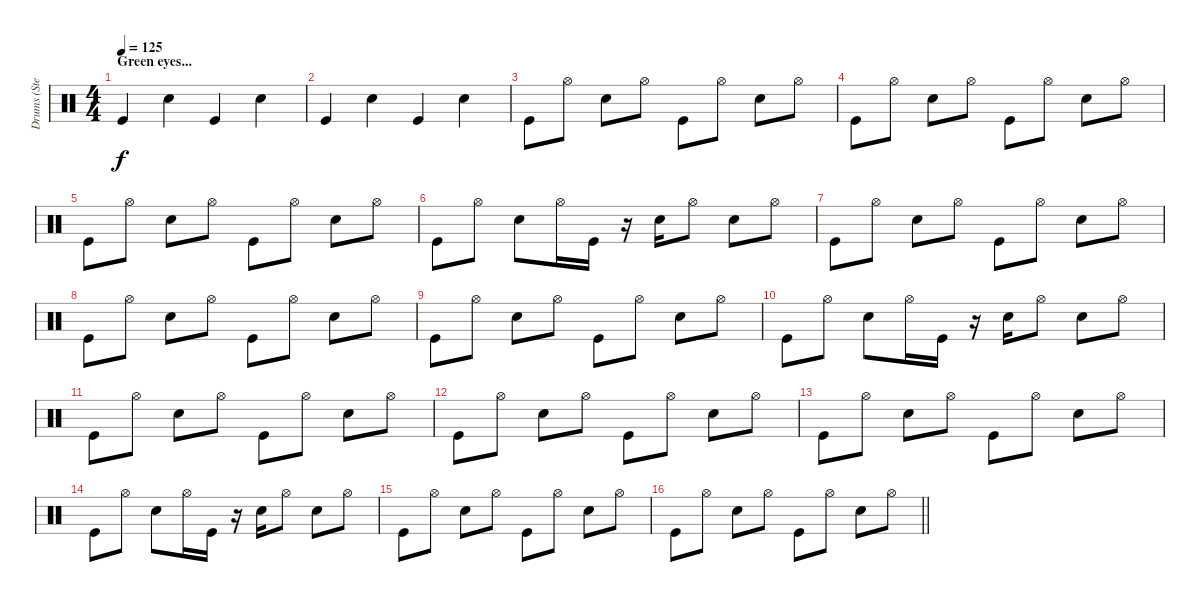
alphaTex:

\track ("Drums (Steve)" "Drums (Ste") {instrument percussion}
\staff {score}
\articulation defaults
\ts (4 4)
\section ("" "Green eyes...")
\tempo 125
\clef neutral
\ks c "Kick (hit)".4{dy f} "Electric Snare (hit)".4 "Kick (hit)".4 "Electric Snare (hit)".4
|
"Kick (hit)".4 "Electric Snare (hit)".4 "Kick (hit)".4 "Electric Snare (hit)".4 |
"Kick (hit)".8 "Hi-Hat (open)".8 "Electric Snare (hit)".8 "Hi-Hat (open)".8 "Kick (hit)".8 "Hi-Hat (open)".8 "Electric Snare (hit)".8 "Hi-Hat (open)".8 |
"Kick (hit)".8 "Hi-Hat (open)".8 "Electric Snare (hit)".8 "Hi-Hat (open)".8 "Kick (hit)".8 "Hi-Hat (open)".8 "Electric Snare (hit)".8 "Hi-Hat (open)".8 |
"Kick (hit)".8 "Hi-Hat (open)".8 "Electric Snare (hit)".8 "Hi-Hat (open)".8 "Kick (hit)".8 "Hi-Hat (open)".8 "Electric Snare (hit)".8 "Hi-Hat (open)".8 |
"Kick (hit)".8 "Hi-Hat (open)".8 "Electric Snare (hit)".8 "Hi-Hat (open)".16 "Kick (hit)".16 r.16 "Electric Snare (hit)".16 "Hi-Hat (open)".8 "Electric Snare (hit)".8 "Hi-Hat (open)".8 |
"Kick (hit)".8 "Hi-Hat (open)".8 "Electric Snare (hit)".8 "Hi-Hat (open)".8 "Kick (hit)".8 "Hi-Hat (open)".8 "Electric Snare (hit)".8 "Hi-Hat (open)".8 |
"Kick (hit)".8 "Hi-Hat (open)".8 "Electric Snare (hit)".8 "Hi-Hat (open)".8 "Kick (hit)".8 "Hi-Hat (open)".8 "Electric Snare (hit)".8 "Hi-Hat (open)".8 |
"Kick (hit)".8 "Hi-Hat (open)".8 "Electric Snare (hit)".8 "Hi-Hat (open)".8 "Kick (hit)".8 "Hi-Hat (open)".8 "Electric Snare (hit)".8 "Hi-Hat (open)".8 |
"Kick (hit)".8 "Hi-Hat (open)".8 "Electric Snare (hit)".8 "Hi-Hat (open)".16 "Kick (hit)".16 r.16 "Electric Snare (hit)".16 "Hi-Hat (open)".8 "Electric Snare (hit)".8 "Hi-Hat (open)".8 |
"Kick (hit)".8 "Hi-Hat (open)".8 "Electric Snare (hit)".8 "Hi-Hat (open)".8 "Kick (hit)".8 "Hi-Hat (open)".8 "Electric Snare (hit)".8 "Hi-Hat (open)".8 |
"Kick (hit)".8 "Hi-Hat (open)".8 "Electric Snare (hit)".8 "Hi-Hat (open)".8 "Kick (hit)".8 "Hi-Hat (open)".8 "Electric Snare (hit)".8 "Hi-Hat (open)".8 |
"Kick (hit)".8 "Hi-Hat (open)".8 "Electric Snare (hit)".8 "Hi-Hat (open)".8 "Kick (hit)".8 "Hi-Hat (open)".8 "Electric Snare (hit)".8 "Hi-Hat (open)".8 |
"Kick (hit)".8 "Hi-Hat (open)".8 "Electric Snare (hit)".8 "Hi-Hat (open)".16 "Kick (hit)".16 r.16 "Electric Snare (hit)".16 "Hi-Hat (open)".8 "Electric Snare (hit)".8 "Hi-Hat (open)".8 |
"Kick (hit)".8 "Hi-Hat (open)".8 "Electric Snare (hit)".8 "Hi-Hat (open)".8 "Kick (hit)".8 "Hi-Hat (open)".8 "Electric Snare (hit)".8 "Hi-Hat (open)".8 |
\barLineRight lightlight "Kick (hit)".8 "Hi-Hat (open)".8 "Electric Snare (hit)".8 "Hi-Hat (open)".8 "Kick (hit)".8 "Hi-Hat (open)".8 "Electric Snare (hit)".8 "Hi-Hat (open)".8
